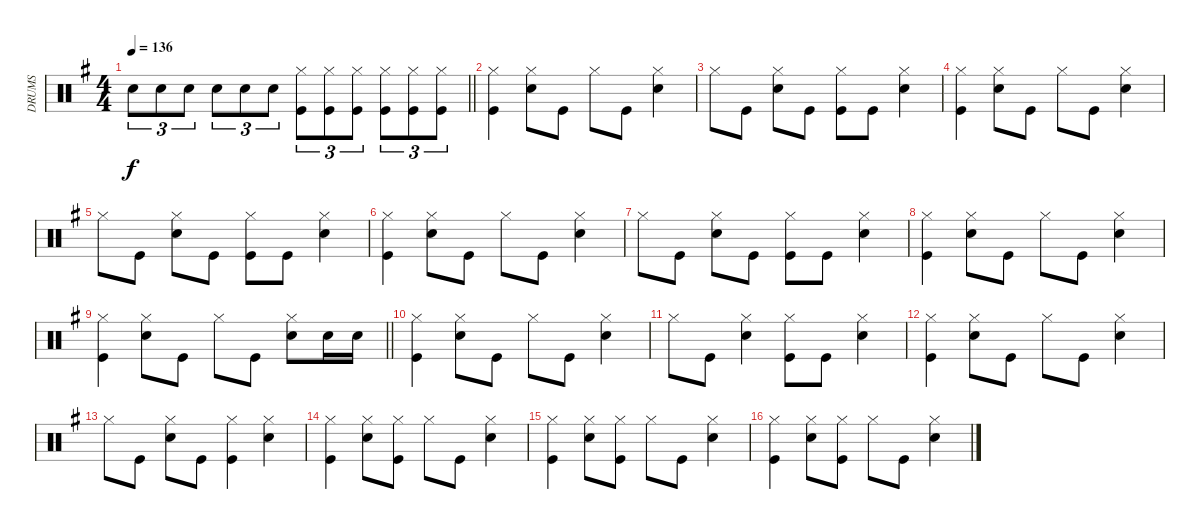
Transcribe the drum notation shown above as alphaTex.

\track ("DRUMS" "DRUMS") {instrument percussion}
\staff {score}
\articulation defaults
\ts (4 4)
\tempo 136
\clef neutral
\barLineRight lightlight
\ks eminor "Snare (hit) 2".8{tu (3 2) dy f} "Snare (hit) 2".8{tu (3 2)} "Snare (hit) 2".8{tu (3 2)} "Snare (hit) 2".8{tu (3 2)} "Snare (hit) 2".8{tu (3 2)} "Snare (hit) 2".8{tu (3 2)}
("Hi-Hat (closed)" "Kick (hit)").8{tu (3 2)} ("Hi-Hat (closed)" "Kick (hit)").8{tu (3 2)} ("Hi-Hat (closed)" "Kick (hit)").8{tu (3 2)} ("Hi-Hat (closed)" "Kick (hit)").8{tu (3 2)} ("Hi-Hat (closed)" "Kick (hit)").8{tu (3 2)} ("Hi-Hat (closed)" "Kick (hit)").8{tu (3 2)} |
("Hi-Hat (closed)" "Kick (hit)").4 ("Hi-Hat (closed)" "Snare (hit) 2").8 "Kick (hit)".8 "Hi-Hat (closed)".8 "Kick (hit)".8 ("Hi-Hat (closed)" "Snare (hit) 2").4 |
"Hi-Hat (closed)".8 "Kick (hit)".8 ("Hi-Hat (closed)" "Snare (hit) 2").8 "Kick (hit)".8 ("Hi-Hat (closed)" "Kick (hit)").8 "Kick (hit)".8 ("Hi-Hat (closed)" "Snare (hit) 2").4 |
("Hi-Hat (closed)" "Kick (hit)").4 ("Hi-Hat (closed)" "Snare (hit) 2").8 "Kick (hit)".8 "Hi-Hat (closed)".8 "Kick (hit)".8 ("Hi-Hat (closed)" "Snare (hit) 2").4 |
"Hi-Hat (closed)".8 "Kick (hit)".8 ("Hi-Hat (closed)" "Snare (hit) 2").8 "Kick (hit)".8 ("Hi-Hat (closed)" "Kick (hit)").8 "Kick (hit)".8 ("Hi-Hat (closed)" "Snare (hit) 2").4 |
("Hi-Hat (closed)" "Kick (hit)").4 ("Hi-Hat (closed)" "Snare (hit) 2").8 "Kick (hit)".8 "Hi-Hat (closed)".8 "Kick (hit)".8 ("Hi-Hat (closed)" "Snare (hit) 2").4 |
"Hi-Hat (closed)".8 "Kick (hit)".8 ("Hi-Hat (closed)" "Snare (hit) 2").8 "Kick (hit)".8 ("Hi-Hat (closed)" "Kick (hit)").8 "Kick (hit)".8 ("Hi-Hat (closed)" "Snare (hit) 2").4 |
("Hi-Hat (closed)" "Kick (hit)").4 ("Hi-Hat (closed)" "Snare (hit) 2").8 "Kick (hit)".8 "Hi-Hat (closed)".8 "Kick (hit)".8 ("Hi-Hat (closed)" "Snare (hit) 2").4 |
\barLineRight lightlight
("Hi-Hat (closed)" "Kick (hit)").4 ("Hi-Hat (closed)" "Snare (hit) 2").8 "Kick (hit)".8 "Hi-Hat (closed)".8 "Kick (hit)".8 ("Hi-Hat (closed)" "Snare (hit) 2").8 "Snare (hit) 2".16 "Snare (hit) 2".16 |
("Hi-Hat (closed)" "Kick (hit)").4 ("Hi-Hat (closed)" "Snare (hit) 2").8 "Kick (hit)".8 "Hi-Hat (closed)".8 "Kick (hit)".8 ("Hi-Hat (closed)" "Snare (hit) 2").4 |
"Hi-Hat (closed)".8 "Kick (hit)".8 ("Hi-Hat (closed)" "Snare (hit) 2").4 ("Hi-Hat (closed)" "Kick (hit)").8 "Kick (hit)".8 ("Hi-Hat (closed)" "Snare (hit) 2").4 |
("Hi-Hat (closed)" "Kick (hit)").4 ("Hi-Hat (closed)" "Snare (hit) 2").8 "Kick (hit)".8 "Hi-Hat (closed)".8 "Kick (hit)".8 ("Hi-Hat (closed)" "Snare (hit) 2").4 |
"Hi-Hat (closed)".8 "Kick (hit)".8 ("Hi-Hat (closed)" "Snare (hit) 2").8 "Kick (hit)".8 ("Hi-Hat (closed)" "Kick (hit)").4 ("Hi-Hat (closed)" "Snare (hit) 2").4 |
("Hi-Hat (closed)" "Kick (hit)").4 ("Hi-Hat (closed)" "Snare (hit) 2").8 ("Hi-Hat (closed)" "Kick (hit)").8 "Hi-Hat (closed)".8 "Kick (hit)".8 ("Hi-Hat (closed)" "Snare (hit) 2").4 |
("Hi-Hat (closed)" "Kick (hit)").4 ("Hi-Hat (closed)" "Snare (hit) 2").8 ("Hi-Hat (closed)" "Kick (hit)").8 "Hi-Hat (closed)".8 "Kick (hit)".8 ("Hi-Hat (closed)" "Snare (hit) 2").4 |
("Hi-Hat (closed)" "Kick (hit)").4 ("Hi-Hat (closed)" "Snare (hit) 2").8 ("Hi-Hat (closed)" "Kick (hit)").8 "Hi-Hat (closed)".8 "Kick (hit)".8 ("Hi-Hat (closed)" "Snare (hit) 2").4
